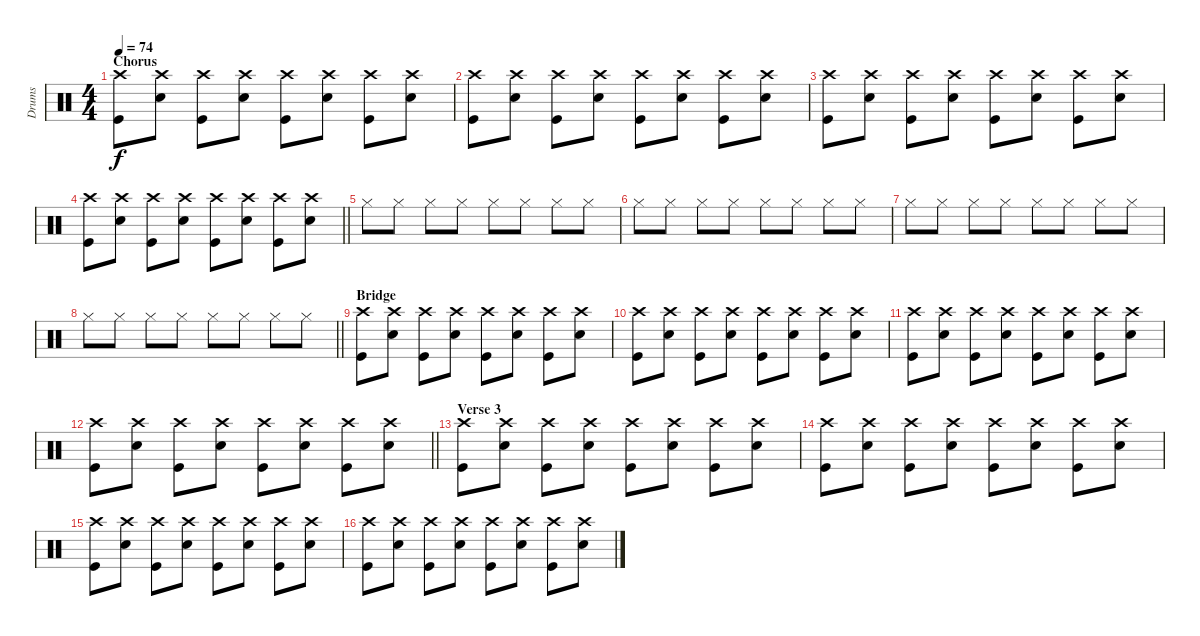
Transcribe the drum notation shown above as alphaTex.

\track ("Drums" "Drums") {instrument percussion}
\staff {score}
\articulation defaults
\ts (4 4)
\section ("" "Chorus")
\tempo 74
\clef neutral
\ks c
("Crash high (hit)" "Kick (hit)").8{dy f} ("Crash high (hit)" "Snare (hit) 2").8 ("Crash high (hit)" "Kick (hit)").8 ("Crash high (hit)" "Snare (hit) 2").8 ("Crash high (hit)" "Kick (hit)").8 ("Crash high (hit)" "Snare (hit) 2").8 ("Crash high (hit)" "Kick (hit)").8 ("Crash high (hit)" "Snare (hit) 2").8 |
("Crash high (hit)" "Kick (hit)").8 ("Crash high (hit)" "Snare (hit) 2").8 ("Crash high (hit)" "Kick (hit)").8 ("Crash high (hit)" "Snare (hit) 2").8 ("Crash high (hit)" "Kick (hit)").8 ("Crash high (hit)" "Snare (hit) 2").8 ("Crash high (hit)" "Kick (hit)").8 ("Crash high (hit)" "Snare (hit) 2").8 |
("Crash high (hit)" "Kick (hit)").8 ("Crash high (hit)" "Snare (hit) 2").8 ("Crash high (hit)" "Kick (hit)").8 ("Crash high (hit)" "Snare (hit) 2").8 ("Crash high (hit)" "Kick (hit)").8 ("Crash high (hit)" "Snare (hit) 2").8 ("Crash high (hit)" "Kick (hit)").8 ("Crash high (hit)" "Snare (hit) 2").8 |
\barLineRight lightlight
("Crash high (hit)" "Kick (hit)").8 ("Crash high (hit)" "Snare (hit) 2").8 ("Crash high (hit)" "Kick (hit)").8 ("Crash high (hit)" "Snare (hit) 2").8 ("Crash high (hit)" "Kick (hit)").8 ("Crash high (hit)" "Snare (hit) 2").8 ("Crash high (hit)" "Kick (hit)").8 ("Crash high (hit)" "Snare (hit) 2").8 |
"Hi-Hat (closed)".8 "Hi-Hat (closed)".8 "Hi-Hat (closed)".8 "Hi-Hat (closed)".8 "Hi-Hat (closed)".8 "Hi-Hat (closed)".8 "Hi-Hat (closed)".8 "Hi-Hat (closed)".8 |
"Hi-Hat (closed)".8 "Hi-Hat (closed)".8 "Hi-Hat (closed)".8 "Hi-Hat (closed)".8 "Hi-Hat (closed)".8 "Hi-Hat (closed)".8 "Hi-Hat (closed)".8 "Hi-Hat (closed)".8 |
"Hi-Hat (closed)".8 "Hi-Hat (closed)".8 "Hi-Hat (closed)".8 "Hi-Hat (closed)".8 "Hi-Hat (closed)".8 "Hi-Hat (closed)".8 "Hi-Hat (closed)".8 "Hi-Hat (closed)".8 |
\barLineRight lightlight "Hi-Hat (closed)".8 "Hi-Hat (closed)".8 "Hi-Hat (closed)".8 "Hi-Hat (closed)".8 "Hi-Hat (closed)".8 "Hi-Hat (closed)".8 "Hi-Hat (closed)".8 "Hi-Hat (closed)".8
|
\section ("" "Bridge")
("Crash high (hit)" "Kick (hit)").8 ("Crash high (hit)" "Snare (hit) 2").8 ("Crash high (hit)" "Kick (hit)").8 ("Crash high (hit)" "Snare (hit) 2").8 ("Crash high (hit)" "Kick (hit)").8 ("Crash high (hit)" "Snare (hit) 2").8 ("Crash high (hit)" "Kick (hit)").8 ("Crash high (hit)" "Snare (hit) 2").8 |
("Crash high (hit)" "Kick (hit)").8 ("Crash high (hit)" "Snare (hit) 2").8 ("Crash high (hit)" "Kick (hit)").8 ("Crash high (hit)" "Snare (hit) 2").8 ("Crash high (hit)" "Kick (hit)").8 ("Crash high (hit)" "Snare (hit) 2").8 ("Crash high (hit)" "Kick (hit)").8 ("Crash high (hit)" "Snare (hit) 2").8 |
("Crash high (hit)" "Kick (hit)").8 ("Crash high (hit)" "Snare (hit) 2").8 ("Crash high (hit)" "Kick (hit)").8 ("Crash high (hit)" "Snare (hit) 2").8 ("Crash high (hit)" "Kick (hit)").8 ("Crash high (hit)" "Snare (hit) 2").8 ("Crash high (hit)" "Kick (hit)").8 ("Crash high (hit)" "Snare (hit) 2").8 |
\barLineRight lightlight
("Crash high (hit)" "Kick (hit)").8 ("Crash high (hit)" "Snare (hit) 2").8 ("Crash high (hit)" "Kick (hit)").8 ("Crash high (hit)" "Snare (hit) 2").8 ("Crash high (hit)" "Kick (hit)").8 ("Crash high (hit)" "Snare (hit) 2").8 ("Crash high (hit)" "Kick (hit)").8 ("Crash high (hit)" "Snare (hit) 2").8 |
\section ("" "Verse 3")
("Crash high (hit)" "Kick (hit)").8 ("Crash high (hit)" "Snare (hit) 2").8 ("Crash high (hit)" "Kick (hit)").8 ("Crash high (hit)" "Snare (hit) 2").8 ("Crash high (hit)" "Kick (hit)").8 ("Crash high (hit)" "Snare (hit) 2").8 ("Crash high (hit)" "Kick (hit)").8 ("Crash high (hit)" "Snare (hit) 2").8 |
("Crash high (hit)" "Kick (hit)").8 ("Crash high (hit)" "Snare (hit) 2").8 ("Crash high (hit)" "Kick (hit)").8 ("Crash high (hit)" "Snare (hit) 2").8 ("Crash high (hit)" "Kick (hit)").8 ("Crash high (hit)" "Snare (hit) 2").8 ("Crash high (hit)" "Kick (hit)").8 ("Crash high (hit)" "Snare (hit) 2").8 |
("Crash high (hit)" "Kick (hit)").8 ("Crash high (hit)" "Snare (hit) 2").8 ("Crash high (hit)" "Kick (hit)").8 ("Crash high (hit)" "Snare (hit) 2").8 ("Crash high (hit)" "Kick (hit)").8 ("Crash high (hit)" "Snare (hit) 2").8 ("Crash high (hit)" "Kick (hit)").8 ("Crash high (hit)" "Snare (hit) 2").8 |
("Crash high (hit)" "Kick (hit)").8 ("Crash high (hit)" "Snare (hit) 2").8 ("Crash high (hit)" "Kick (hit)").8 ("Crash high (hit)" "Snare (hit) 2").8 ("Crash high (hit)" "Kick (hit)").8 ("Crash high (hit)" "Snare (hit) 2").8 ("Crash high (hit)" "Kick (hit)").8 ("Crash high (hit)" "Snare (hit) 2").8
